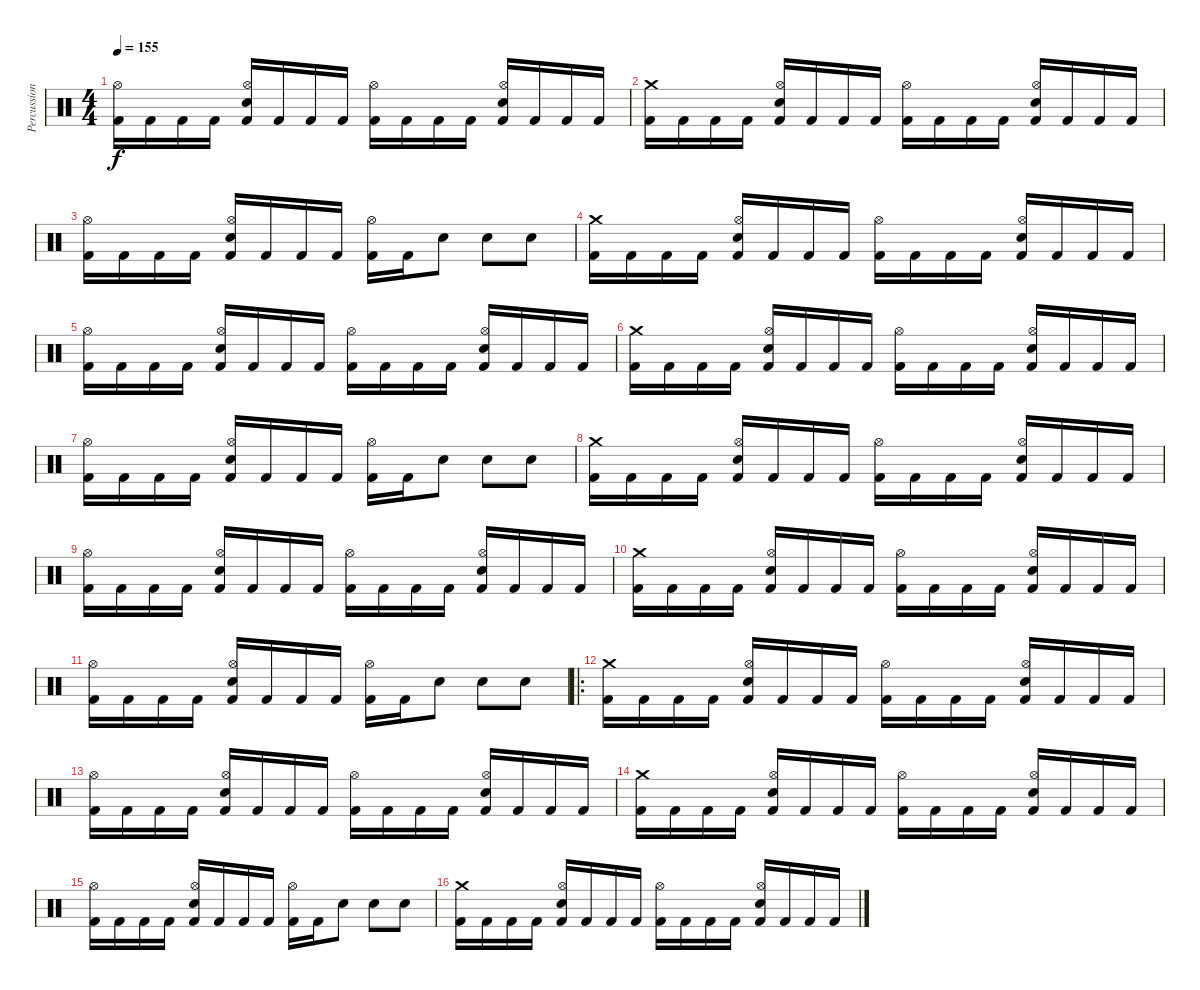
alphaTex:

\track ("Percussion" "Percussion") {instrument percussion}
\staff {score}
\articulation defaults
\ts (4 4)
\tempo 155
\clef neutral
\ks c
("Kick (hit) 2" "Hi-Hat (open)").16{dy f} "Kick (hit) 2".16 "Kick (hit) 2".16 "Kick (hit) 2".16 ("Kick (hit) 2" "Snare (hit) 2" "Hi-Hat (open)").16 "Kick (hit) 2".16 "Kick (hit) 2".16 "Kick (hit) 2".16 ("Kick (hit) 2" "Hi-Hat (open)").16 "Kick (hit) 2".16 "Kick (hit) 2".16 "Kick (hit) 2".16 ("Kick (hit) 2" "Snare (hit) 2" "Hi-Hat (open)").16 "Kick (hit) 2".16 "Kick (hit) 2".16 "Kick (hit) 2".16 |
("Kick (hit) 2" "Crash medium (hit)").16 "Kick (hit) 2".16 "Kick (hit) 2".16 "Kick (hit) 2".16 ("Kick (hit) 2" "Snare (hit) 2" "Hi-Hat (open)").16 "Kick (hit) 2".16 "Kick (hit) 2".16 "Kick (hit) 2".16 ("Kick (hit) 2" "Hi-Hat (open)").16 "Kick (hit) 2".16 "Kick (hit) 2".16 "Kick (hit) 2".16 ("Kick (hit) 2" "Snare (hit) 2" "Hi-Hat (open)").16 "Kick (hit) 2".16 "Kick (hit) 2".16 "Kick (hit) 2".16 |
("Kick (hit) 2" "Hi-Hat (open)").16 "Kick (hit) 2".16 "Kick (hit) 2".16 "Kick (hit) 2".16 ("Kick (hit) 2" "Snare (hit) 2" "Hi-Hat (open)").16 "Kick (hit) 2".16 "Kick (hit) 2".16 "Kick (hit) 2".16 ("Kick (hit) 2" "Hi-Hat (open)").16 "Kick (hit) 2".16 "Snare (hit) 2".8 "Snare (hit) 2".8 "Snare (hit) 2".8 |
("Kick (hit) 2" "Crash medium (hit)").16 "Kick (hit) 2".16 "Kick (hit) 2".16 "Kick (hit) 2".16 ("Kick (hit) 2" "Snare (hit) 2" "Hi-Hat (open)").16 "Kick (hit) 2".16 "Kick (hit) 2".16 "Kick (hit) 2".16 ("Kick (hit) 2" "Hi-Hat (open)").16 "Kick (hit) 2".16 "Kick (hit) 2".16 "Kick (hit) 2".16 ("Kick (hit) 2" "Snare (hit) 2" "Hi-Hat (open)").16 "Kick (hit) 2".16 "Kick (hit) 2".16 "Kick (hit) 2".16 |
("Kick (hit) 2" "Hi-Hat (open)").16 "Kick (hit) 2".16 "Kick (hit) 2".16 "Kick (hit) 2".16 ("Kick (hit) 2" "Snare (hit) 2" "Hi-Hat (open)").16 "Kick (hit) 2".16 "Kick (hit) 2".16 "Kick (hit) 2".16 ("Kick (hit) 2" "Hi-Hat (open)").16 "Kick (hit) 2".16 "Kick (hit) 2".16 "Kick (hit) 2".16 ("Kick (hit) 2" "Snare (hit) 2" "Hi-Hat (open)").16 "Kick (hit) 2".16 "Kick (hit) 2".16 "Kick (hit) 2".16 |
("Kick (hit) 2" "Crash medium (hit)").16 "Kick (hit) 2".16 "Kick (hit) 2".16 "Kick (hit) 2".16 ("Kick (hit) 2" "Snare (hit) 2" "Hi-Hat (open)").16 "Kick (hit) 2".16 "Kick (hit) 2".16 "Kick (hit) 2".16 ("Kick (hit) 2" "Hi-Hat (open)").16 "Kick (hit) 2".16 "Kick (hit) 2".16 "Kick (hit) 2".16 ("Kick (hit) 2" "Snare (hit) 2" "Hi-Hat (open)").16 "Kick (hit) 2".16 "Kick (hit) 2".16 "Kick (hit) 2".16 |
("Kick (hit) 2" "Hi-Hat (open)").16 "Kick (hit) 2".16 "Kick (hit) 2".16 "Kick (hit) 2".16 ("Kick (hit) 2" "Snare (hit) 2" "Hi-Hat (open)").16 "Kick (hit) 2".16 "Kick (hit) 2".16 "Kick (hit) 2".16 ("Kick (hit) 2" "Hi-Hat (open)").16 "Kick (hit) 2".16 "Snare (hit) 2".8 "Snare (hit) 2".8 "Snare (hit) 2".8 |
("Kick (hit) 2" "Crash medium (hit)").16 "Kick (hit) 2".16 "Kick (hit) 2".16 "Kick (hit) 2".16 ("Kick (hit) 2" "Snare (hit) 2" "Hi-Hat (open)").16 "Kick (hit) 2".16 "Kick (hit) 2".16 "Kick (hit) 2".16 ("Kick (hit) 2" "Hi-Hat (open)").16 "Kick (hit) 2".16 "Kick (hit) 2".16 "Kick (hit) 2".16 ("Kick (hit) 2" "Snare (hit) 2" "Hi-Hat (open)").16 "Kick (hit) 2".16 "Kick (hit) 2".16 "Kick (hit) 2".16 |
("Kick (hit) 2" "Hi-Hat (open)").16 "Kick (hit) 2".16 "Kick (hit) 2".16 "Kick (hit) 2".16 ("Kick (hit) 2" "Snare (hit) 2" "Hi-Hat (open)").16 "Kick (hit) 2".16 "Kick (hit) 2".16 "Kick (hit) 2".16 ("Kick (hit) 2" "Hi-Hat (open)").16 "Kick (hit) 2".16 "Kick (hit) 2".16 "Kick (hit) 2".16 ("Kick (hit) 2" "Snare (hit) 2" "Hi-Hat (open)").16 "Kick (hit) 2".16 "Kick (hit) 2".16 "Kick (hit) 2".16 |
("Kick (hit) 2" "Crash medium (hit)").16 "Kick (hit) 2".16 "Kick (hit) 2".16 "Kick (hit) 2".16 ("Kick (hit) 2" "Snare (hit) 2" "Hi-Hat (open)").16 "Kick (hit) 2".16 "Kick (hit) 2".16 "Kick (hit) 2".16 ("Kick (hit) 2" "Hi-Hat (open)").16 "Kick (hit) 2".16 "Kick (hit) 2".16 "Kick (hit) 2".16 ("Kick (hit) 2" "Snare (hit) 2" "Hi-Hat (open)").16 "Kick (hit) 2".16 "Kick (hit) 2".16 "Kick (hit) 2".16 |
("Kick (hit) 2" "Hi-Hat (open)").16 "Kick (hit) 2".16 "Kick (hit) 2".16 "Kick (hit) 2".16 ("Kick (hit) 2" "Snare (hit) 2" "Hi-Hat (open)").16 "Kick (hit) 2".16 "Kick (hit) 2".16 "Kick (hit) 2".16 ("Kick (hit) 2" "Hi-Hat (open)").16 "Kick (hit) 2".16 "Snare (hit) 2".8 "Snare (hit) 2".8 "Snare (hit) 2".8 |
\ro
("Kick (hit) 2" "Crash medium (hit)").16 "Kick (hit) 2".16 "Kick (hit) 2".16 "Kick (hit) 2".16 ("Kick (hit) 2" "Snare (hit) 2" "Hi-Hat (open)").16 "Kick (hit) 2".16 "Kick (hit) 2".16 "Kick (hit) 2".16 ("Kick (hit) 2" "Hi-Hat (open)").16 "Kick (hit) 2".16 "Kick (hit) 2".16 "Kick (hit) 2".16 ("Kick (hit) 2" "Snare (hit) 2" "Hi-Hat (open)").16 "Kick (hit) 2".16 "Kick (hit) 2".16 "Kick (hit) 2".16 |
("Kick (hit) 2" "Hi-Hat (open)").16 "Kick (hit) 2".16 "Kick (hit) 2".16 "Kick (hit) 2".16 ("Kick (hit) 2" "Snare (hit) 2" "Hi-Hat (open)").16 "Kick (hit) 2".16 "Kick (hit) 2".16 "Kick (hit) 2".16 ("Kick (hit) 2" "Hi-Hat (open)").16 "Kick (hit) 2".16 "Kick (hit) 2".16 "Kick (hit) 2".16 ("Kick (hit) 2" "Snare (hit) 2" "Hi-Hat (open)").16 "Kick (hit) 2".16 "Kick (hit) 2".16 "Kick (hit) 2".16 |
("Kick (hit) 2" "Crash medium (hit)").16 "Kick (hit) 2".16 "Kick (hit) 2".16 "Kick (hit) 2".16 ("Kick (hit) 2" "Snare (hit) 2" "Hi-Hat (open)").16 "Kick (hit) 2".16 "Kick (hit) 2".16 "Kick (hit) 2".16 ("Kick (hit) 2" "Hi-Hat (open)").16 "Kick (hit) 2".16 "Kick (hit) 2".16 "Kick (hit) 2".16 ("Kick (hit) 2" "Snare (hit) 2" "Hi-Hat (open)").16 "Kick (hit) 2".16 "Kick (hit) 2".16 "Kick (hit) 2".16 |
("Kick (hit) 2" "Hi-Hat (open)").16 "Kick (hit) 2".16 "Kick (hit) 2".16 "Kick (hit) 2".16 ("Kick (hit) 2" "Snare (hit) 2" "Hi-Hat (open)").16 "Kick (hit) 2".16 "Kick (hit) 2".16 "Kick (hit) 2".16 ("Kick (hit) 2" "Hi-Hat (open)").16 "Kick (hit) 2".16 "Snare (hit) 2".8 "Snare (hit) 2".8 "Snare (hit) 2".8 |
("Kick (hit) 2" "Crash medium (hit)").16 "Kick (hit) 2".16 "Kick (hit) 2".16 "Kick (hit) 2".16 ("Kick (hit) 2" "Snare (hit) 2" "Hi-Hat (open)").16 "Kick (hit) 2".16 "Kick (hit) 2".16 "Kick (hit) 2".16 ("Kick (hit) 2" "Hi-Hat (open)").16 "Kick (hit) 2".16 "Kick (hit) 2".16 "Kick (hit) 2".16 ("Kick (hit) 2" "Snare (hit) 2" "Hi-Hat (open)").16 "Kick (hit) 2".16 "Kick (hit) 2".16 "Kick (hit) 2".16
